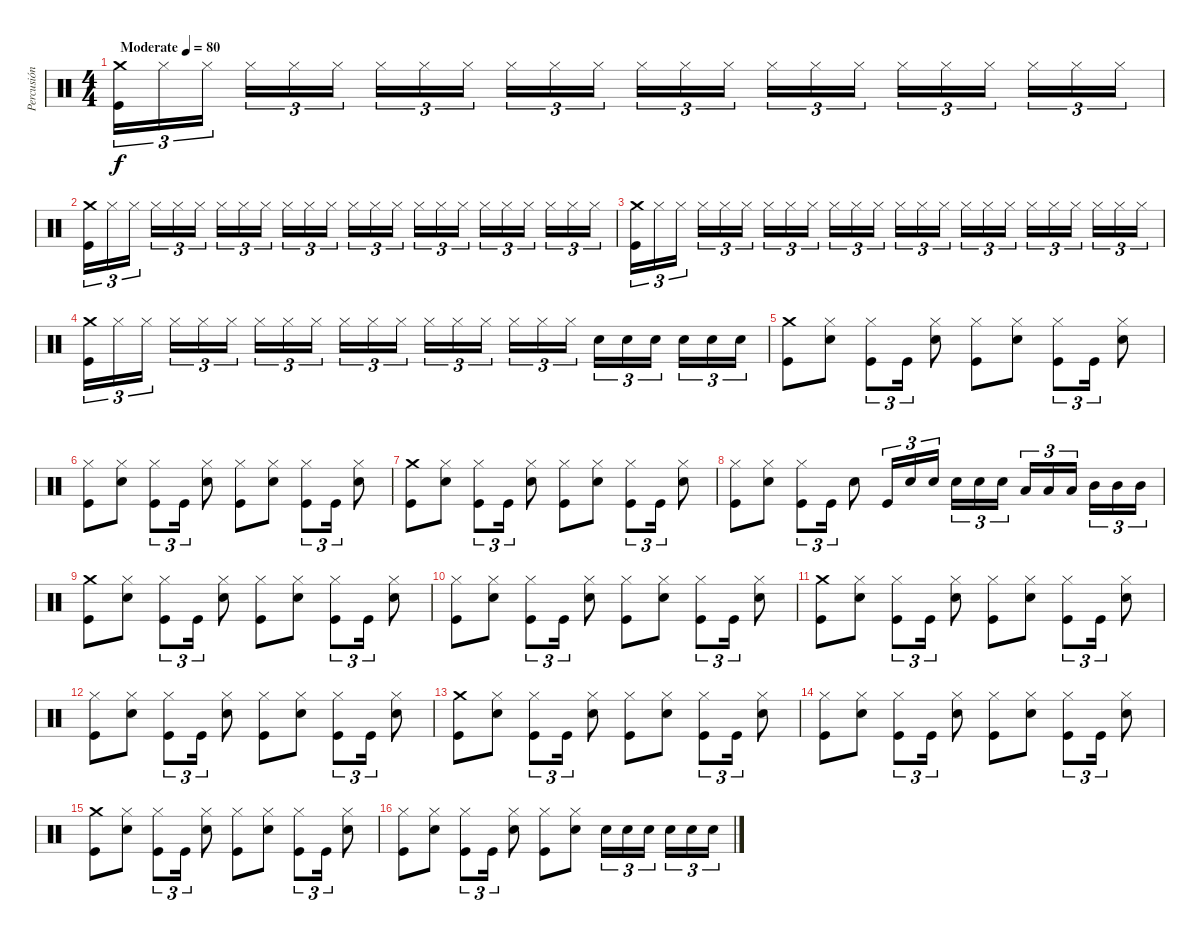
\track ("Percusión" "Percusión") {mute instrument percussion}
\staff {score}
\articulation defaults
\ts (4 4)
\tempo (80 "Moderate")
\clef neutral
\ks c
("Crash medium (hit)" "Kick (hit)").16{tu (3 2) dy f} "Hi-Hat (closed)".16{tu (3 2)} "Hi-Hat (closed)".16{tu (3 2) beam splitsecondary} "Hi-Hat (closed)".16{tu (3 2)} "Hi-Hat (closed)".16{tu (3 2)} "Hi-Hat (closed)".16{tu (3 2)} "Hi-Hat (closed)".16{tu (3 2)} "Hi-Hat (closed)".16{tu (3 2)} "Hi-Hat (closed)".16{tu (3 2) beam splitsecondary} "Hi-Hat (closed)".16{tu (3 2)} "Hi-Hat (closed)".16{tu (3 2)} "Hi-Hat (closed)".16{tu (3 2)} "Hi-Hat (closed)".16{tu (3 2)} "Hi-Hat (closed)".16{tu (3 2)} "Hi-Hat (closed)".16{tu (3 2) beam splitsecondary} "Hi-Hat (closed)".16{tu (3 2)} "Hi-Hat (closed)".16{tu (3 2)} "Hi-Hat (closed)".16{tu (3 2)} "Hi-Hat (closed)".16{tu (3 2)} "Hi-Hat (closed)".16{tu (3 2)} "Hi-Hat (closed)".16{tu (3 2) beam splitsecondary} "Hi-Hat (closed)".16{tu (3 2)} "Hi-Hat (closed)".16{tu (3 2)} "Hi-Hat (closed)".16{tu (3 2)} |
("Crash medium (hit)" "Kick (hit)").16{tu (3 2)} "Hi-Hat (closed)".16{tu (3 2)} "Hi-Hat (closed)".16{tu (3 2) beam splitsecondary} "Hi-Hat (closed)".16{tu (3 2)} "Hi-Hat (closed)".16{tu (3 2)} "Hi-Hat (closed)".16{tu (3 2)} "Hi-Hat (closed)".16{tu (3 2)} "Hi-Hat (closed)".16{tu (3 2)} "Hi-Hat (closed)".16{tu (3 2) beam splitsecondary} "Hi-Hat (closed)".16{tu (3 2)} "Hi-Hat (closed)".16{tu (3 2)} "Hi-Hat (closed)".16{tu (3 2)} "Hi-Hat (closed)".16{tu (3 2)} "Hi-Hat (closed)".16{tu (3 2)} "Hi-Hat (closed)".16{tu (3 2) beam splitsecondary} "Hi-Hat (closed)".16{tu (3 2)} "Hi-Hat (closed)".16{tu (3 2)} "Hi-Hat (closed)".16{tu (3 2)} "Hi-Hat (closed)".16{tu (3 2)} "Hi-Hat (closed)".16{tu (3 2)} "Hi-Hat (closed)".16{tu (3 2) beam splitsecondary} "Hi-Hat (closed)".16{tu (3 2)} "Hi-Hat (closed)".16{tu (3 2)} "Hi-Hat (closed)".16{tu (3 2)} |
("Crash medium (hit)" "Kick (hit)").16{tu (3 2)} "Hi-Hat (closed)".16{tu (3 2)} "Hi-Hat (closed)".16{tu (3 2) beam splitsecondary} "Hi-Hat (closed)".16{tu (3 2)} "Hi-Hat (closed)".16{tu (3 2)} "Hi-Hat (closed)".16{tu (3 2)} "Hi-Hat (closed)".16{tu (3 2)} "Hi-Hat (closed)".16{tu (3 2)} "Hi-Hat (closed)".16{tu (3 2) beam splitsecondary} "Hi-Hat (closed)".16{tu (3 2)} "Hi-Hat (closed)".16{tu (3 2)} "Hi-Hat (closed)".16{tu (3 2)} "Hi-Hat (closed)".16{tu (3 2)} "Hi-Hat (closed)".16{tu (3 2)} "Hi-Hat (closed)".16{tu (3 2) beam splitsecondary} "Hi-Hat (closed)".16{tu (3 2)} "Hi-Hat (closed)".16{tu (3 2)} "Hi-Hat (closed)".16{tu (3 2)} "Hi-Hat (closed)".16{tu (3 2)} "Hi-Hat (closed)".16{tu (3 2)} "Hi-Hat (closed)".16{tu (3 2) beam splitsecondary} "Hi-Hat (closed)".16{tu (3 2)} "Hi-Hat (closed)".16{tu (3 2)} "Hi-Hat (closed)".16{tu (3 2)} |
("Crash medium (hit)" "Kick (hit)").16{tu (3 2)} "Hi-Hat (closed)".16{tu (3 2)} "Hi-Hat (closed)".16{tu (3 2) beam splitsecondary} "Hi-Hat (closed)".16{tu (3 2)} "Hi-Hat (closed)".16{tu (3 2)} "Hi-Hat (closed)".16{tu (3 2)} "Hi-Hat (closed)".16{tu (3 2)} "Hi-Hat (closed)".16{tu (3 2)} "Hi-Hat (closed)".16{tu (3 2) beam splitsecondary} "Hi-Hat (closed)".16{tu (3 2)} "Hi-Hat (closed)".16{tu (3 2)} "Hi-Hat (closed)".16{tu (3 2)} "Hi-Hat (closed)".16{tu (3 2)} "Hi-Hat (closed)".16{tu (3 2)} "Hi-Hat (closed)".16{tu (3 2) beam splitsecondary} "Hi-Hat (closed)".16{tu (3 2)} "Hi-Hat (closed)".16{tu (3 2)} "Hi-Hat (closed)".16{tu (3 2)} "Snare (hit) 2".16{tu (3 2)} "Snare (hit) 2".16{tu (3 2)} "Snare (hit) 2".16{tu (3 2) beam splitsecondary} "Snare (hit) 2".16{tu (3 2)} "Snare (hit) 2".16{tu (3 2)} "Snare (hit) 2".16{tu (3 2)} |
("Crash medium (hit)" "Kick (hit)").8 ("Hi-Hat (closed)" "Snare (hit) 2").8 ("Hi-Hat (closed)" "Kick (hit)").8{tu (3 2)} "Kick (hit)".16{tu (3 2)} ("Hi-Hat (closed)" "Snare (hit) 2").8 ("Hi-Hat (closed)" "Kick (hit)").8 ("Hi-Hat (closed)" "Snare (hit) 2").8 ("Hi-Hat (closed)" "Kick (hit)").8{tu (3 2)} "Kick (hit)".16{tu (3 2)} ("Hi-Hat (closed)" "Snare (hit) 2").8 |
("Hi-Hat (closed)" "Kick (hit)").8 ("Hi-Hat (closed)" "Snare (hit) 2").8 ("Hi-Hat (closed)" "Kick (hit)").8{tu (3 2)} "Kick (hit)".16{tu (3 2)} ("Hi-Hat (closed)" "Snare (hit) 2").8 ("Hi-Hat (closed)" "Kick (hit)").8 ("Hi-Hat (closed)" "Snare (hit) 2").8 ("Hi-Hat (closed)" "Kick (hit)").8{tu (3 2)} "Kick (hit)".16{tu (3 2)} ("Hi-Hat (closed)" "Snare (hit) 2").8 |
("Crash medium (hit)" "Kick (hit)").8 ("Hi-Hat (closed)" "Snare (hit) 2").8 ("Hi-Hat (closed)" "Kick (hit)").8{tu (3 2)} "Kick (hit)".16{tu (3 2)} ("Hi-Hat (closed)" "Snare (hit) 2").8 ("Hi-Hat (closed)" "Kick (hit)").8 ("Hi-Hat (closed)" "Snare (hit) 2").8 ("Hi-Hat (closed)" "Kick (hit)").8{tu (3 2)} "Kick (hit)".16{tu (3 2)} ("Hi-Hat (closed)" "Snare (hit) 2").8 |
("Hi-Hat (closed)" "Kick (hit)").8 ("Hi-Hat (closed)" "Snare (hit) 2").8 ("Hi-Hat (closed)" "Kick (hit)").8{tu (3 2)} "Kick (hit)".16{tu (3 2)} "Snare (hit) 2".8 "Kick (hit)".16{tu (3 2)} "Snare (hit) 2".16{tu (3 2)} "Snare (hit) 2".16{tu (3 2) beam splitsecondary} "Snare (hit) 2".16{tu (3 2)} "Snare (hit) 2".16{tu (3 2)} "Snare (hit) 2".16{tu (3 2)} "Low Tom (hit)".16{tu (3 2)} "Low Tom (hit)".16{tu (3 2)} "Low Tom (hit)".16{tu (3 2) beam splitsecondary} "Mid Tom (hit)".16{tu (3 2)} "Mid Tom (hit)".16{tu (3 2)} "Mid Tom (hit)".16{tu (3 2)} |
("Crash medium (hit)" "Kick (hit)").8 ("Hi-Hat (closed)" "Snare (hit) 2").8 ("Hi-Hat (closed)" "Kick (hit)").8{tu (3 2)} "Kick (hit)".16{tu (3 2)} ("Hi-Hat (closed)" "Snare (hit) 2").8 ("Hi-Hat (closed)" "Kick (hit)").8 ("Hi-Hat (closed)" "Snare (hit) 2").8 ("Hi-Hat (closed)" "Kick (hit)").8{tu (3 2)} "Kick (hit)".16{tu (3 2)} ("Hi-Hat (closed)" "Snare (hit) 2").8 |
("Hi-Hat (closed)" "Kick (hit)").8 ("Hi-Hat (closed)" "Snare (hit) 2").8 ("Hi-Hat (closed)" "Kick (hit)").8{tu (3 2)} "Kick (hit)".16{tu (3 2)} ("Hi-Hat (closed)" "Snare (hit) 2").8 ("Hi-Hat (closed)" "Kick (hit)").8 ("Hi-Hat (closed)" "Snare (hit) 2").8 ("Hi-Hat (closed)" "Kick (hit)").8{tu (3 2)} "Kick (hit)".16{tu (3 2)} ("Hi-Hat (closed)" "Snare (hit) 2").8 |
("Crash medium (hit)" "Kick (hit)").8 ("Hi-Hat (closed)" "Snare (hit) 2").8 ("Hi-Hat (closed)" "Kick (hit)").8{tu (3 2)} "Kick (hit)".16{tu (3 2)} ("Hi-Hat (closed)" "Snare (hit) 2").8 ("Hi-Hat (closed)" "Kick (hit)").8 ("Hi-Hat (closed)" "Snare (hit) 2").8 ("Hi-Hat (closed)" "Kick (hit)").8{tu (3 2)} "Kick (hit)".16{tu (3 2)} ("Hi-Hat (closed)" "Snare (hit) 2").8 |
("Hi-Hat (closed)" "Kick (hit)").8 ("Hi-Hat (closed)" "Snare (hit) 2").8 ("Hi-Hat (closed)" "Kick (hit)").8{tu (3 2)} "Kick (hit)".16{tu (3 2)} ("Hi-Hat (closed)" "Snare (hit) 2").8 ("Hi-Hat (closed)" "Kick (hit)").8 ("Hi-Hat (closed)" "Snare (hit) 2").8 ("Hi-Hat (closed)" "Kick (hit)").8{tu (3 2)} "Kick (hit)".16{tu (3 2)} ("Hi-Hat (closed)" "Snare (hit) 2").8 |
("Crash medium (hit)" "Kick (hit)").8 ("Hi-Hat (closed)" "Snare (hit) 2").8 ("Hi-Hat (closed)" "Kick (hit)").8{tu (3 2)} "Kick (hit)".16{tu (3 2)} ("Hi-Hat (closed)" "Snare (hit) 2").8 ("Hi-Hat (closed)" "Kick (hit)").8 ("Hi-Hat (closed)" "Snare (hit) 2").8 ("Hi-Hat (closed)" "Kick (hit)").8{tu (3 2)} "Kick (hit)".16{tu (3 2)} ("Hi-Hat (closed)" "Snare (hit) 2").8 |
("Hi-Hat (closed)" "Kick (hit)").8 ("Hi-Hat (closed)" "Snare (hit) 2").8 ("Hi-Hat (closed)" "Kick (hit)").8{tu (3 2)} "Kick (hit)".16{tu (3 2)} ("Hi-Hat (closed)" "Snare (hit) 2").8 ("Hi-Hat (closed)" "Kick (hit)").8 ("Hi-Hat (closed)" "Snare (hit) 2").8 ("Hi-Hat (closed)" "Kick (hit)").8{tu (3 2)} "Kick (hit)".16{tu (3 2)} ("Hi-Hat (closed)" "Snare (hit) 2").8 |
("Crash medium (hit)" "Kick (hit)").8 ("Hi-Hat (closed)" "Snare (hit) 2").8 ("Hi-Hat (closed)" "Kick (hit)").8{tu (3 2)} "Kick (hit)".16{tu (3 2)} ("Hi-Hat (closed)" "Snare (hit) 2").8 ("Hi-Hat (closed)" "Kick (hit)").8 ("Hi-Hat (closed)" "Snare (hit) 2").8 ("Hi-Hat (closed)" "Kick (hit)").8{tu (3 2)} "Kick (hit)".16{tu (3 2)} ("Hi-Hat (closed)" "Snare (hit) 2").8 |
("Hi-Hat (closed)" "Kick (hit)").8 ("Hi-Hat (closed)" "Snare (hit) 2").8 ("Hi-Hat (closed)" "Kick (hit)").8{tu (3 2)} "Kick (hit)".16{tu (3 2)} ("Hi-Hat (closed)" "Snare (hit) 2").8 ("Hi-Hat (closed)" "Kick (hit)").8 ("Hi-Hat (closed)" "Snare (hit) 2").8 "Snare (hit) 2".16{tu (3 2)} "Snare (hit) 2".16{tu (3 2)} "Snare (hit) 2".16{tu (3 2) beam splitsecondary} "Snare (hit) 2".16{tu (3 2)} "Snare (hit) 2".16{tu (3 2)} "Snare (hit) 2".16{tu (3 2)}
